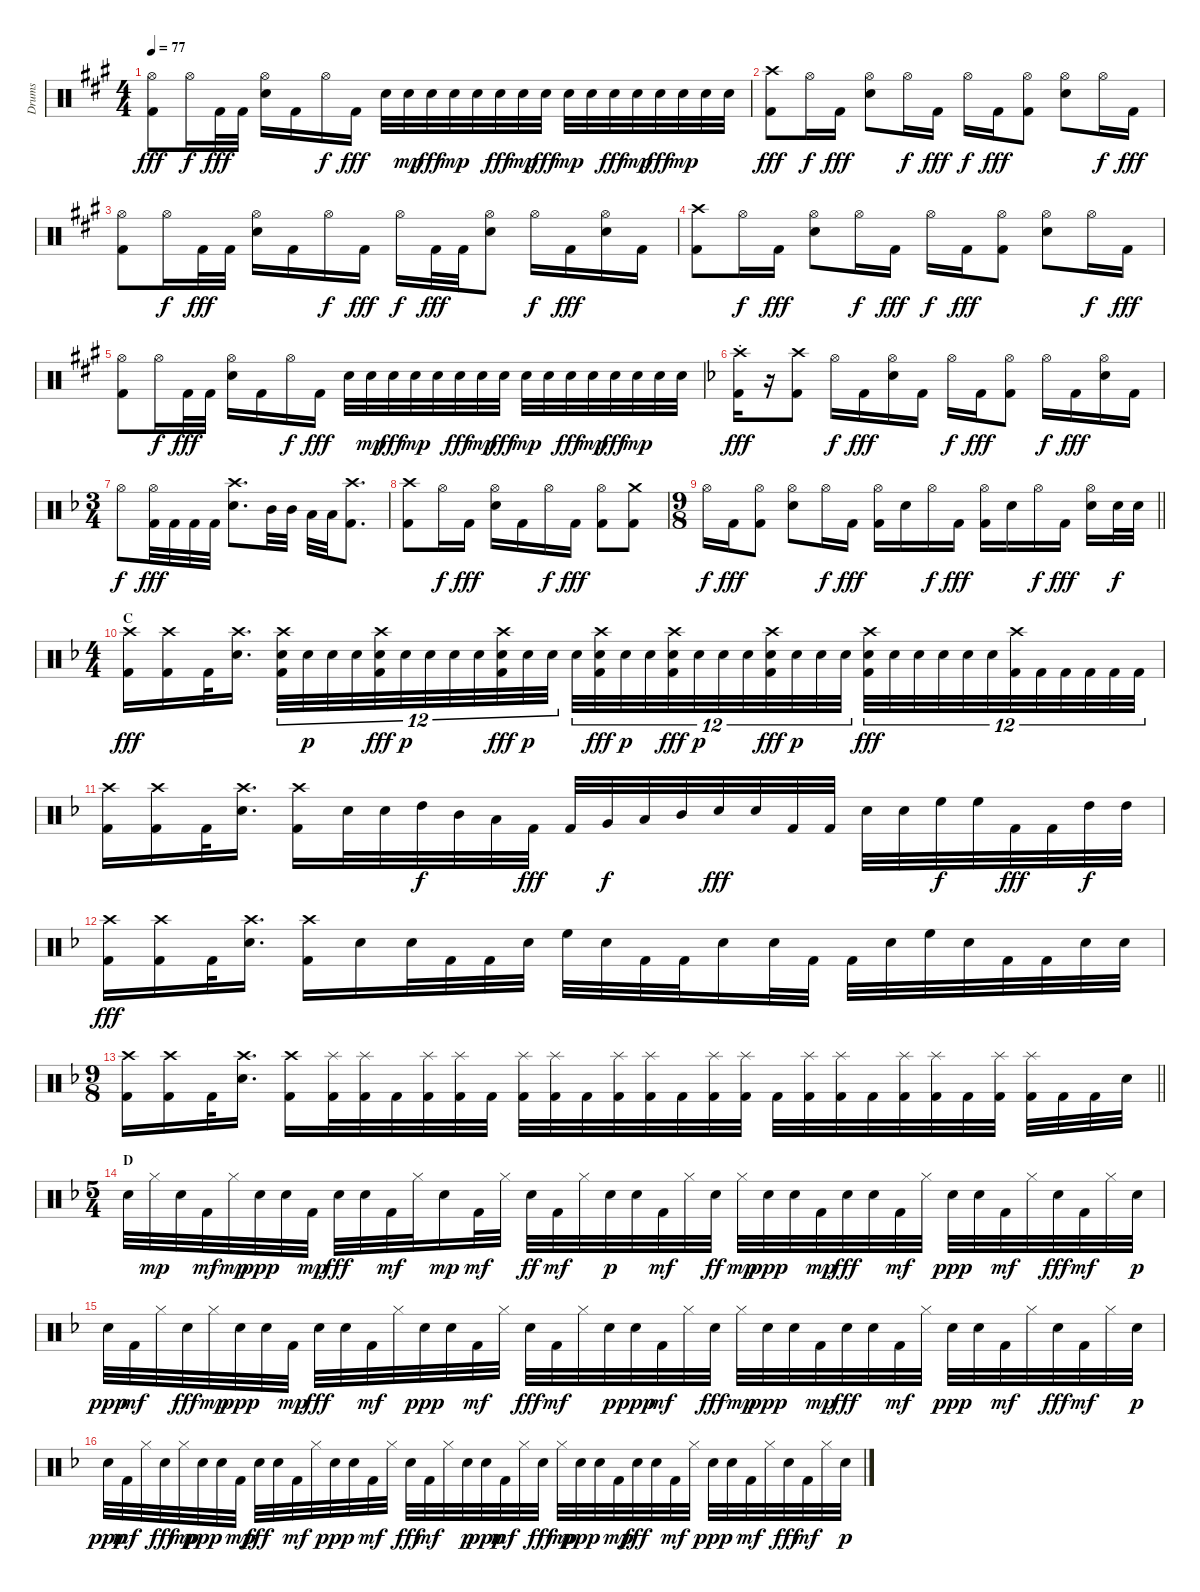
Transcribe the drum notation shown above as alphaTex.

\track ("Drums" "Drums") {instrument percussion}
\staff {score}
\articulation defaults
\ts (4 4)
\tempo 77
\clef neutral
\ks f#minor
("Hi-Hat (open)" "Kick (hit) 2").8{dy fff} "Hi-Hat (open)".16{dy f} "Kick (hit) 2".32{dy fff} "Kick (hit) 2".32 ("Hi-Hat (open)" "Snare (hit) 2").16 "Kick (hit) 2".16 "Hi-Hat (open)".16{dy f} "Kick (hit) 2".16{dy fff} "Snare (hit) 2".32 "Snare (hit) 2".32{dy mp} "Snare (hit) 2".32{dy fff} "Snare (hit) 2".32{dy mp} "Snare (hit) 2".32 "Snare (hit) 2".32{dy fff} "Snare (hit) 2".32{dy mp} "Snare (hit) 2".32{dy fff} "Snare (hit) 2".32{dy mp} "Snare (hit) 2".32 "Snare (hit) 2".32{dy fff} "Snare (hit) 2".32{dy mp} "Snare (hit) 2".32{dy fff} "Snare (hit) 2".32{dy mp} "Snare (hit) 2".32 "Snare (hit) 2".32 |
("Crash high (hit)" "Kick (hit) 2").8{dy fff} "Hi-Hat (open)".16{dy f} "Kick (hit) 2".16{dy fff} ("Hi-Hat (open)" "Snare (hit) 2").8 "Hi-Hat (open)".16{dy f} "Kick (hit) 2".16{dy fff} "Hi-Hat (open)".16{dy f} "Kick (hit) 2".16{dy fff} ("Hi-Hat (open)" "Kick (hit) 2").8 ("Hi-Hat (open)" "Snare (hit) 2").8 "Hi-Hat (open)".16{dy f} "Kick (hit) 2".16{dy fff} |
("Hi-Hat (open)" "Kick (hit) 2").8 "Hi-Hat (open)".16{dy f} "Kick (hit) 2".32{dy fff} "Kick (hit) 2".32 ("Hi-Hat (open)" "Snare (hit) 2").16 "Kick (hit) 2".16 "Hi-Hat (open)".16{dy f} "Kick (hit) 2".16{dy fff} "Hi-Hat (open)".16{dy f} "Kick (hit) 2".32{dy fff} "Kick (hit) 2".32 ("Hi-Hat (open)" "Snare (hit) 2").8 "Hi-Hat (open)".16{dy f} "Kick (hit) 2".16{dy fff} ("Hi-Hat (open)" "Snare (hit) 2").16 "Kick (hit) 2".16 |
("Crash high (hit)" "Kick (hit) 2").8 "Hi-Hat (open)".16{dy f} "Kick (hit) 2".16{dy fff} ("Hi-Hat (open)" "Snare (hit) 2").8 "Hi-Hat (open)".16{dy f} "Kick (hit) 2".16{dy fff} "Hi-Hat (open)".16{dy f} "Kick (hit) 2".16{dy fff} ("Hi-Hat (open)" "Kick (hit) 2").8 ("Hi-Hat (open)" "Snare (hit) 2").8 "Hi-Hat (open)".16{dy f} "Kick (hit) 2".16{dy fff} |
("Hi-Hat (open)" "Kick (hit) 2").8 "Hi-Hat (open)".16{dy f} "Kick (hit) 2".32{dy fff} "Kick (hit) 2".32 ("Hi-Hat (open)" "Snare (hit) 2").16 "Kick (hit) 2".16 "Hi-Hat (open)".16{dy f} "Kick (hit) 2".16{dy fff} "Snare (hit) 2".32 "Snare (hit) 2".32{dy mp} "Snare (hit) 2".32{dy fff} "Snare (hit) 2".32{dy mp} "Snare (hit) 2".32 "Snare (hit) 2".32{dy fff} "Snare (hit) 2".32{dy mp} "Snare (hit) 2".32{dy fff} "Snare (hit) 2".32{dy mp} "Snare (hit) 2".32 "Snare (hit) 2".32{dy fff} "Snare (hit) 2".32{dy mp} "Snare (hit) 2".32{dy fff} "Snare (hit) 2".32{dy mp} "Snare (hit) 2".32 "Snare (hit) 2".32 |
\ks dminor
("Crash high (hit)"{st} "Kick (hit) 2").16{dy fff} r.16 ("Crash high (hit)" "Kick (hit) 2").8 "Hi-Hat (open)".16{dy f} "Kick (hit) 2".16{dy fff} ("Hi-Hat (open)" "Snare (hit) 2").16 "Kick (hit) 2".16 "Hi-Hat (open)".16{dy f} "Kick (hit) 2".16{dy fff} ("Hi-Hat (open)" "Kick (hit) 2").8 "Hi-Hat (open)".16{dy f} "Kick (hit) 2".16{dy fff} ("Hi-Hat (open)" "Snare (hit) 2").16 "Kick (hit) 2".16 |
\ts (3 4)
"Hi-Hat (open)".8{dy f} ("Hi-Hat (open)" "Kick (hit) 2").32{dy fff} "Kick (hit) 2".32 "Kick (hit) 2".32 "Kick (hit) 2".32 ("Crash high (hit)" "Snare (hit) 2").8{d} "Mid Tom (hit)".32 "Mid Tom (hit)".32 "Low Tom (hit)".32 "Low Tom (hit)".32 ("Crash high (hit)" "Kick (hit) 2").8{d} |
("Crash high (hit)" "Kick (hit) 2").8 "Hi-Hat (open)".16{dy f} "Kick (hit) 2".16{dy fff} ("Hi-Hat (open)" "Snare (hit) 2").16 "Kick (hit) 2".16 "Hi-Hat (open)".16{dy f} "Kick (hit) 2".16{dy fff} ("Hi-Hat (open)" "Kick (hit) 2").8 ("Crash medium (hit)" "Kick (hit) 2").8 |
\ts (9 8)
\barLineRight lightlight "Hi-Hat (open)".16{dy f} "Kick (hit) 2".16{dy fff}
("Hi-Hat (open)" "Kick (hit) 2").8{beam split} ("Hi-Hat (open)" "Snare (hit) 2").8{beam merge} "Hi-Hat (open)".16{dy f} "Kick (hit) 2".16{dy fff beam split} ("Hi-Hat (open)" "Kick (hit) 2").16 "Snare (hit) 2".16 "Hi-Hat (open)".16{dy f} "Kick (hit) 2".16{dy fff beam split} ("Hi-Hat (open)" "Kick (hit) 2").16 "Snare (hit) 2".16 "Hi-Hat (open)".16{dy f} "Kick (hit) 2".16{dy fff beam split} ("Hi-Hat (open)" "Snare (hit) 2").16 "Snare (hit) 2".32{dy f} "Snare (hit) 2".32 |
\ts (4 4)
\section ("" "C")
("Crash high (hit)" "Kick (hit) 2").16{dy fff} ("Crash high (hit)" "Kick (hit) 2").16 "Kick (hit) 2".32 ("Crash high (hit)" "Snare (hit) 2").16{d} ("Crash high (hit)" "Snare (hit) 2" "Kick (hit) 2").32{tu (12 8)} "Snare (hit) 2".32{tu (12 8) dy p} "Snare (hit) 2".32{tu (12 8)} "Snare (hit) 2".32{tu (12 8)} ("Crash high (hit)" "Snare (hit) 2" "Kick (hit) 2").32{tu (12 8) dy fff} "Snare (hit) 2".32{tu (12 8) dy p} "Snare (hit) 2".32{tu (12 8)} "Snare (hit) 2".32{tu (12 8)} "Snare (hit) 2".32{tu (12 8)} ("Crash high (hit)" "Snare (hit) 2" "Kick (hit) 2").32{tu (12 8) dy fff} "Snare (hit) 2".32{tu (12 8) dy p} "Snare (hit) 2".32{tu (12 8)} "Snare (hit) 2".32{tu (12 8)} ("Crash high (hit)" "Snare (hit) 2" "Kick (hit) 2").32{tu (12 8) dy fff} "Snare (hit) 2".32{tu (12 8) dy p} "Snare (hit) 2".32{tu (12 8)} ("Crash high (hit)" "Snare (hit) 2" "Kick (hit) 2").32{tu (12 8) dy fff} "Snare (hit) 2".32{tu (12 8) dy p} "Snare (hit) 2".32{tu (12 8)} "Snare (hit) 2".32{tu (12 8)} ("Crash high (hit)" "Snare (hit) 2" "Kick (hit) 2").32{tu (12 8) dy fff} "Snare (hit) 2".32{tu (12 8) dy p} "Snare (hit) 2".32{tu (12 8)} "Snare (hit) 2".32{tu (12 8)} ("Crash high (hit)" "Snare (hit) 2" "Kick (hit) 2").32{tu (12 8) dy fff} "Snare (hit) 2".32{tu (12 8)} "Snare (hit) 2".32{tu (12 8)} "Snare (hit) 2".32{tu (12 8)} "Snare (hit) 2".32{tu (12 8)} "Snare (hit) 2".32{tu (12 8)} ("Crash high (hit)" "Kick (hit) 2").32{tu (12 8)} "Kick (hit) 2".32{tu (12 8)} "Kick (hit) 2".32{tu (12 8)} "Kick (hit) 2".32{tu (12 8)} "Kick (hit) 2".32{tu (12 8)} "Kick (hit) 2".32{tu (12 8)} |
("Crash high (hit)" "Kick (hit) 2").16 ("Crash high (hit)" "Kick (hit) 2").16 "Kick (hit) 2".32 ("Crash high (hit)" "Snare (hit) 2").16{d} ("Crash high (hit)" "Kick (hit) 2").16 "Snare (hit) 2".32 "Snare (hit) 2".32 "High Tom (hit)".32{dy f} "Mid Tom (hit)".32 "Low Tom (hit)".32 "Kick (hit) 2".32{dy fff} "Kick (hit) 2".32 "Very Low Tom (hit)".32{dy f} "Low Tom (hit)".32 "Mid Tom (hit)".32 "Snare (hit) 2".32{dy fff} "Snare (hit) 2".32 "Kick (hit) 2".32 "Kick (hit) 2".32 "Snare (hit) 2".32 "Snare (hit) 2".32 "High Floor Tom (hit)".32{dy f} "High Floor Tom (hit)".32 "Kick (hit) 2".32{dy fff} "Kick (hit) 2".32 "High Tom (hit)".32{dy f} "High Tom (hit)".32 |
("Crash high (hit)" "Kick (hit) 2").16{dy fff} ("Crash high (hit)" "Kick (hit) 2").16 "Kick (hit) 2".32 ("Crash high (hit)" "Snare (hit) 2").16{d} ("Crash high (hit)" "Kick (hit) 2").16 "Snare (hit) 2".16 "Snare (hit) 2".32 "Kick (hit) 2".32 "Kick (hit) 2".32 "Snare (hit) 2".32 "High Floor Tom (hit)".32 "Snare (hit) 2".32 "Kick (hit) 2".32 "Kick (hit) 2".32 "Snare (hit) 2".16 "Snare (hit) 2".32 "Kick (hit) 2".32 "Kick (hit) 2".32 "Snare (hit) 2".32 "High Floor Tom (hit)".32 "Snare (hit) 2".32 "Kick (hit) 2".32 "Kick (hit) 2".32 "Snare (hit) 2".32 "Snare (hit) 2".32 |
\ts (9 8)
\barLineRight lightlight
("Crash high (hit)" "Kick (hit) 2").16 ("Crash high (hit)" "Kick (hit) 2").16 "Kick (hit) 2".32 ("Crash high (hit)" "Snare (hit) 2").16{d beam split} ("Crash high (hit)" "Kick (hit) 2").16 ("Splash (hit)" "Kick (hit) 2").32 ("Splash (hit)" "Kick (hit) 2").32{beam merge} "Kick (hit) 2".32 ("Splash (hit)" "Kick (hit) 2").32 ("Splash (hit)" "Kick (hit) 2").32 "Kick (hit) 2".32{beam split} ("Splash (hit)" "Kick (hit) 2").32 ("Splash (hit)" "Kick (hit) 2").32 "Kick (hit) 2".32 ("Splash (hit)" "Kick (hit) 2").32 ("Splash (hit)" "Kick (hit) 2").32 "Kick (hit) 2".32 ("Splash (hit)" "Kick (hit) 2").32 ("Splash (hit)" "Kick (hit) 2").32 "Kick (hit) 2".32 ("Splash (hit)" "Kick (hit) 2").32 ("Splash (hit)" "Kick (hit) 2").32 "Kick (hit) 2".32 ("Splash (hit)" "Kick (hit) 2").32 ("Splash (hit)" "Kick (hit) 2").32 "Kick (hit) 2".32 ("Splash (hit)" "Kick (hit) 2").32{beam split} ("Splash (hit)" "Kick (hit) 2").32 "Kick (hit) 2".32 "Kick (hit) 2".32 "Snare (hit) 2".32 |
\ts (5 4)
\section ("" "D")
"Snare (hit) 2".32 "Hi-Hat (closed)".32{dy mp} "Snare (hit) 2".32 "Kick (hit) 2".32{dy mf} "Hi-Hat (closed)".32{dy mp} "Snare (hit) 2".32{dy ppp} "Snare (hit) 2".32 "Kick (hit) 2".32{dy mp} "Snare (hit) 2".32{dy fff} "Snare (hit) 2".32 "Kick (hit) 2".32{dy mf} "Hi-Hat (closed)".32 "Snare (hit) 2".16{dy mp} "Kick (hit) 2".32{dy mf} "Hi-Hat (closed)".32 "Snare (hit) 2".32{dy ff} "Kick (hit) 2".32{dy mf} "Hi-Hat (closed)".32 "Snare (hit) 2".32{dy p} "Snare (hit) 2".32 "Kick (hit) 2".32{dy mf} "Hi-Hat (closed)".32 "Snare (hit) 2".32{dy ff} "Hi-Hat (closed)".32{dy mp} "Snare (hit) 2".32{dy ppp} "Snare (hit) 2".32 "Kick (hit) 2".32{dy mp} "Snare (hit) 2".32{dy fff} "Snare (hit) 2".32 "Kick (hit) 2".32{dy mf} "Hi-Hat (closed)".32 "Snare (hit) 2".32{dy ppp} "Snare (hit) 2".32 "Kick (hit) 2".32{dy mf} "Hi-Hat (closed)".32 "Snare (hit) 2".32{dy fff} "Kick (hit) 2".32{dy mf} "Hi-Hat (closed)".32 "Snare (hit) 2".32{dy p} |
"Snare (hit) 2".32{dy ppp} "Kick (hit) 2".32{dy mf} "Hi-Hat (closed)".32 "Snare (hit) 2".32{dy fff} "Hi-Hat (closed)".32{dy mp} "Snare (hit) 2".32{dy ppp} "Snare (hit) 2".32 "Kick (hit) 2".32{dy mp} "Snare (hit) 2".32{dy fff} "Snare (hit) 2".32 "Kick (hit) 2".32{dy mf} "Hi-Hat (closed)".32 "Snare (hit) 2".32{dy ppp} "Snare (hit) 2".32 "Kick (hit) 2".32{dy mf} "Hi-Hat (closed)".32 "Snare (hit) 2".32{dy fff} "Kick (hit) 2".32{dy mf} "Hi-Hat (closed)".32 "Snare (hit) 2".32{dy p} "Snare (hit) 2".32{dy ppp} "Kick (hit) 2".32{dy mf} "Hi-Hat (closed)".32 "Snare (hit) 2".32{dy fff} "Hi-Hat (closed)".32{dy mp} "Snare (hit) 2".32{dy ppp} "Snare (hit) 2".32 "Kick (hit) 2".32{dy mp} "Snare (hit) 2".32{dy fff} "Snare (hit) 2".32 "Kick (hit) 2".32{dy mf} "Hi-Hat (closed)".32 "Snare (hit) 2".32{dy ppp} "Snare (hit) 2".32 "Kick (hit) 2".32{dy mf} "Hi-Hat (closed)".32 "Snare (hit) 2".32{dy fff} "Kick (hit) 2".32{dy mf} "Hi-Hat (closed)".32 "Snare (hit) 2".32{dy p} |
"Snare (hit) 2".32{dy ppp} "Kick (hit) 2".32{dy mf} "Hi-Hat (closed)".32 "Snare (hit) 2".32{dy fff} "Hi-Hat (closed)".32{dy mp} "Snare (hit) 2".32{dy ppp} "Snare (hit) 2".32 "Kick (hit) 2".32{dy mp} "Snare (hit) 2".32{dy fff} "Snare (hit) 2".32 "Kick (hit) 2".32{dy mf} "Hi-Hat (closed)".32 "Snare (hit) 2".32{dy ppp} "Snare (hit) 2".32 "Kick (hit) 2".32{dy mf} "Hi-Hat (closed)".32 "Snare (hit) 2".32{dy fff} "Kick (hit) 2".32{dy mf} "Hi-Hat (closed)".32 "Snare (hit) 2".32{dy p} "Snare (hit) 2".32{dy ppp} "Kick (hit) 2".32{dy mf} "Hi-Hat (closed)".32 "Snare (hit) 2".32{dy fff} "Hi-Hat (closed)".32{dy mp} "Snare (hit) 2".32{dy ppp} "Snare (hit) 2".32 "Kick (hit) 2".32{dy mp} "Snare (hit) 2".32{dy fff} "Snare (hit) 2".32 "Kick (hit) 2".32{dy mf} "Hi-Hat (closed)".32 "Snare (hit) 2".32{dy ppp} "Snare (hit) 2".32 "Kick (hit) 2".32{dy mf} "Hi-Hat (closed)".32 "Snare (hit) 2".32{dy fff} "Kick (hit) 2".32{dy mf} "Hi-Hat (closed)".32 "Snare (hit) 2".32{dy p}
